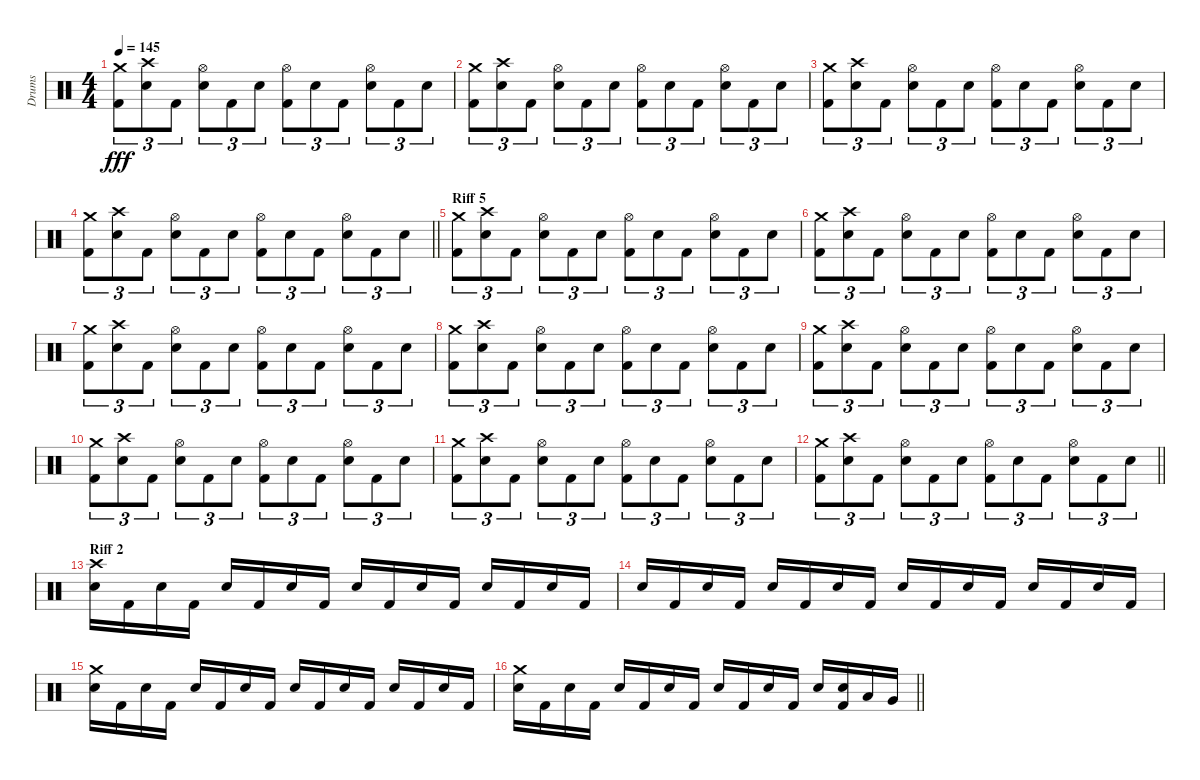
\track ("Drums" "Drums") {instrument percussion}
\staff {score}
\articulation defaults
\ts (4 4)
\tempo 145
\clef neutral
\ks c
("Crash medium (hit)" "Kick (hit) 2").8{tu (3 2) dy fff} ("Crash high (hit)" "Snare (hit) 2").8{tu (3 2)} "Kick (hit) 2".8{tu (3 2)} ("Hi-Hat (open)" "Snare (hit) 2").8{tu (3 2)} "Kick (hit) 2".8{tu (3 2)} "Snare (hit) 2".8{tu (3 2)} ("Hi-Hat (open)" "Kick (hit) 2").8{tu (3 2)} "Snare (hit) 2".8{tu (3 2)} "Kick (hit) 2".8{tu (3 2)} ("Hi-Hat (open)" "Snare (hit) 2").8{tu (3 2)} "Kick (hit) 2".8{tu (3 2)} "Snare (hit) 2".8{tu (3 2)} |
("Crash medium (hit)" "Kick (hit) 2").8{tu (3 2)} ("Crash high (hit)" "Snare (hit) 2").8{tu (3 2)} "Kick (hit) 2".8{tu (3 2)} ("Hi-Hat (open)" "Snare (hit) 2").8{tu (3 2)} "Kick (hit) 2".8{tu (3 2)} "Snare (hit) 2".8{tu (3 2)} ("Hi-Hat (open)" "Kick (hit) 2").8{tu (3 2)} "Snare (hit) 2".8{tu (3 2)} "Kick (hit) 2".8{tu (3 2)} ("Hi-Hat (open)" "Snare (hit) 2").8{tu (3 2)} "Kick (hit) 2".8{tu (3 2)} "Snare (hit) 2".8{tu (3 2)} |
("Crash medium (hit)" "Kick (hit) 2").8{tu (3 2)} ("Crash high (hit)" "Snare (hit) 2").8{tu (3 2)} "Kick (hit) 2".8{tu (3 2)} ("Hi-Hat (open)" "Snare (hit) 2").8{tu (3 2)} "Kick (hit) 2".8{tu (3 2)} "Snare (hit) 2".8{tu (3 2)} ("Hi-Hat (open)" "Kick (hit) 2").8{tu (3 2)} "Snare (hit) 2".8{tu (3 2)} "Kick (hit) 2".8{tu (3 2)} ("Hi-Hat (open)" "Snare (hit) 2").8{tu (3 2)} "Kick (hit) 2".8{tu (3 2)} "Snare (hit) 2".8{tu (3 2)} |
\barLineRight lightlight
("Crash medium (hit)" "Kick (hit) 2").8{tu (3 2)} ("Crash high (hit)" "Snare (hit) 2").8{tu (3 2)} "Kick (hit) 2".8{tu (3 2)} ("Hi-Hat (open)" "Snare (hit) 2").8{tu (3 2)} "Kick (hit) 2".8{tu (3 2)} "Snare (hit) 2".8{tu (3 2)} ("Hi-Hat (open)" "Kick (hit) 2").8{tu (3 2)} "Snare (hit) 2".8{tu (3 2)} "Kick (hit) 2".8{tu (3 2)} ("Hi-Hat (open)" "Snare (hit) 2").8{tu (3 2)} "Kick (hit) 2".8{tu (3 2)} "Snare (hit) 2".8{tu (3 2)} |
\section ("" "Riff 5")
("Crash medium (hit)" "Kick (hit) 2").8{tu (3 2)} ("Crash high (hit)" "Snare (hit) 2").8{tu (3 2)} "Kick (hit) 2".8{tu (3 2)} ("Hi-Hat (open)" "Snare (hit) 2").8{tu (3 2)} "Kick (hit) 2".8{tu (3 2)} "Snare (hit) 2".8{tu (3 2)} ("Hi-Hat (open)" "Kick (hit) 2").8{tu (3 2)} "Snare (hit) 2".8{tu (3 2)} "Kick (hit) 2".8{tu (3 2)} ("Hi-Hat (open)" "Snare (hit) 2").8{tu (3 2)} "Kick (hit) 2".8{tu (3 2)} "Snare (hit) 2".8{tu (3 2)} |
("Crash medium (hit)" "Kick (hit) 2").8{tu (3 2)} ("Crash high (hit)" "Snare (hit) 2").8{tu (3 2)} "Kick (hit) 2".8{tu (3 2)} ("Hi-Hat (open)" "Snare (hit) 2").8{tu (3 2)} "Kick (hit) 2".8{tu (3 2)} "Snare (hit) 2".8{tu (3 2)} ("Hi-Hat (open)" "Kick (hit) 2").8{tu (3 2)} "Snare (hit) 2".8{tu (3 2)} "Kick (hit) 2".8{tu (3 2)} ("Hi-Hat (open)" "Snare (hit) 2").8{tu (3 2)} "Kick (hit) 2".8{tu (3 2)} "Snare (hit) 2".8{tu (3 2)} |
("Crash medium (hit)" "Kick (hit) 2").8{tu (3 2)} ("Crash high (hit)" "Snare (hit) 2").8{tu (3 2)} "Kick (hit) 2".8{tu (3 2)} ("Hi-Hat (open)" "Snare (hit) 2").8{tu (3 2)} "Kick (hit) 2".8{tu (3 2)} "Snare (hit) 2".8{tu (3 2)} ("Hi-Hat (open)" "Kick (hit) 2").8{tu (3 2)} "Snare (hit) 2".8{tu (3 2)} "Kick (hit) 2".8{tu (3 2)} ("Hi-Hat (open)" "Snare (hit) 2").8{tu (3 2)} "Kick (hit) 2".8{tu (3 2)} "Snare (hit) 2".8{tu (3 2)} |
("Crash medium (hit)" "Kick (hit) 2").8{tu (3 2)} ("Crash high (hit)" "Snare (hit) 2").8{tu (3 2)} "Kick (hit) 2".8{tu (3 2)} ("Hi-Hat (open)" "Snare (hit) 2").8{tu (3 2)} "Kick (hit) 2".8{tu (3 2)} "Snare (hit) 2".8{tu (3 2)} ("Hi-Hat (open)" "Kick (hit) 2").8{tu (3 2)} "Snare (hit) 2".8{tu (3 2)} "Kick (hit) 2".8{tu (3 2)} ("Hi-Hat (open)" "Snare (hit) 2").8{tu (3 2)} "Kick (hit) 2".8{tu (3 2)} "Snare (hit) 2".8{tu (3 2)} |
("Crash medium (hit)" "Kick (hit) 2").8{tu (3 2)} ("Crash high (hit)" "Snare (hit) 2").8{tu (3 2)} "Kick (hit) 2".8{tu (3 2)} ("Hi-Hat (open)" "Snare (hit) 2").8{tu (3 2)} "Kick (hit) 2".8{tu (3 2)} "Snare (hit) 2".8{tu (3 2)} ("Hi-Hat (open)" "Kick (hit) 2").8{tu (3 2)} "Snare (hit) 2".8{tu (3 2)} "Kick (hit) 2".8{tu (3 2)} ("Hi-Hat (open)" "Snare (hit) 2").8{tu (3 2)} "Kick (hit) 2".8{tu (3 2)} "Snare (hit) 2".8{tu (3 2)} |
("Crash medium (hit)" "Kick (hit) 2").8{tu (3 2)} ("Crash high (hit)" "Snare (hit) 2").8{tu (3 2)} "Kick (hit) 2".8{tu (3 2)} ("Hi-Hat (open)" "Snare (hit) 2").8{tu (3 2)} "Kick (hit) 2".8{tu (3 2)} "Snare (hit) 2".8{tu (3 2)} ("Hi-Hat (open)" "Kick (hit) 2").8{tu (3 2)} "Snare (hit) 2".8{tu (3 2)} "Kick (hit) 2".8{tu (3 2)} ("Hi-Hat (open)" "Snare (hit) 2").8{tu (3 2)} "Kick (hit) 2".8{tu (3 2)} "Snare (hit) 2".8{tu (3 2)} |
("Crash medium (hit)" "Kick (hit) 2").8{tu (3 2)} ("Crash high (hit)" "Snare (hit) 2").8{tu (3 2)} "Kick (hit) 2".8{tu (3 2)} ("Hi-Hat (open)" "Snare (hit) 2").8{tu (3 2)} "Kick (hit) 2".8{tu (3 2)} "Snare (hit) 2".8{tu (3 2)} ("Hi-Hat (open)" "Kick (hit) 2").8{tu (3 2)} "Snare (hit) 2".8{tu (3 2)} "Kick (hit) 2".8{tu (3 2)} ("Hi-Hat (open)" "Snare (hit) 2").8{tu (3 2)} "Kick (hit) 2".8{tu (3 2)} "Snare (hit) 2".8{tu (3 2)} |
\barLineRight lightlight
("Crash medium (hit)" "Kick (hit) 2").8{tu (3 2)} ("Crash high (hit)" "Snare (hit) 2").8{tu (3 2)} "Kick (hit) 2".8{tu (3 2)} ("Hi-Hat (open)" "Snare (hit) 2").8{tu (3 2)} "Kick (hit) 2".8{tu (3 2)} "Snare (hit) 2".8{tu (3 2)} ("Hi-Hat (open)" "Kick (hit) 2").8{tu (3 2)} "Snare (hit) 2".8{tu (3 2)} "Kick (hit) 2".8{tu (3 2)} ("Hi-Hat (open)" "Snare (hit) 2").8{tu (3 2)} "Kick (hit) 2".8{tu (3 2)} "Snare (hit) 2".8{tu (3 2)} |
\section ("" "Riff 2")
("Crash high (hit)" "Snare (hit) 2").16 "Kick (hit) 2".16 "Snare (hit) 2".16 "Kick (hit) 2".16 "Snare (hit) 2".16 "Kick (hit) 2".16 "Snare (hit) 2".16 "Kick (hit) 2".16 "Snare (hit) 2".16 "Kick (hit) 2".16 "Snare (hit) 2".16 "Kick (hit) 2".16 "Snare (hit) 2".16 "Kick (hit) 2".16 "Snare (hit) 2".16 "Kick (hit) 2".16 |
"Snare (hit) 2".16 "Kick (hit) 2".16 "Snare (hit) 2".16 "Kick (hit) 2".16 "Snare (hit) 2".16 "Kick (hit) 2".16 "Snare (hit) 2".16 "Kick (hit) 2".16 "Snare (hit) 2".16 "Kick (hit) 2".16 "Snare (hit) 2".16 "Kick (hit) 2".16 "Snare (hit) 2".16 "Kick (hit) 2".16 "Snare (hit) 2".16 "Kick (hit) 2".16 |
("Crash medium (hit)" "Snare (hit) 2").16 "Kick (hit) 2".16 "Snare (hit) 2".16 "Kick (hit) 2".16 "Snare (hit) 2".16 "Kick (hit) 2".16 "Snare (hit) 2".16 "Kick (hit) 2".16 "Snare (hit) 2".16 "Kick (hit) 2".16 "Snare (hit) 2".16 "Kick (hit) 2".16 "Snare (hit) 2".16 "Kick (hit) 2".16 "Snare (hit) 2".16 "Kick (hit) 2".16 |
\barLineRight lightlight
("Crash medium (hit)" "Snare (hit) 2").16 "Kick (hit) 2".16 "Snare (hit) 2".16 "Kick (hit) 2".16 "Snare (hit) 2".16 "Kick (hit) 2".16 "Snare (hit) 2".16 "Kick (hit) 2".16 "Snare (hit) 2".16 "Kick (hit) 2".16 "Snare (hit) 2".16 "Kick (hit) 2".16 "Snare (hit) 2".16 ("Kick (hit) 2" "Snare (hit) 2").16 "Low Tom (hit)".16 "Very Low Tom (hit)".16
